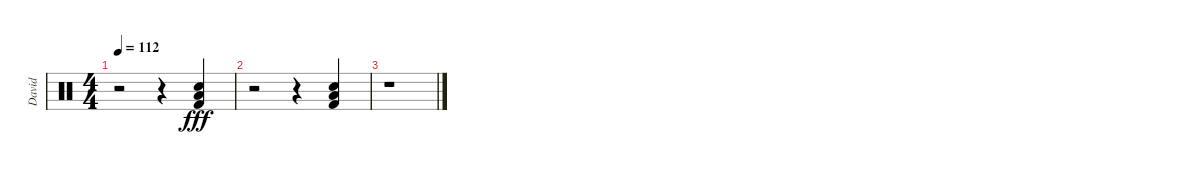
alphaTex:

\track ("David" "David") {instrument percussion}
\staff {score}
\articulation defaults
\ts (4 4)
\tempo 112
\clef neutral
\ks c
r.2{dy fff} r.4 ("Snare (hit) 2" "Low Floor Tom (hit)" "Kick (hit) 2").4 |
r.2 r.4 ("Snare (hit) 2" "Low Floor Tom (hit)" "Kick (hit) 2").4 |
r.1
